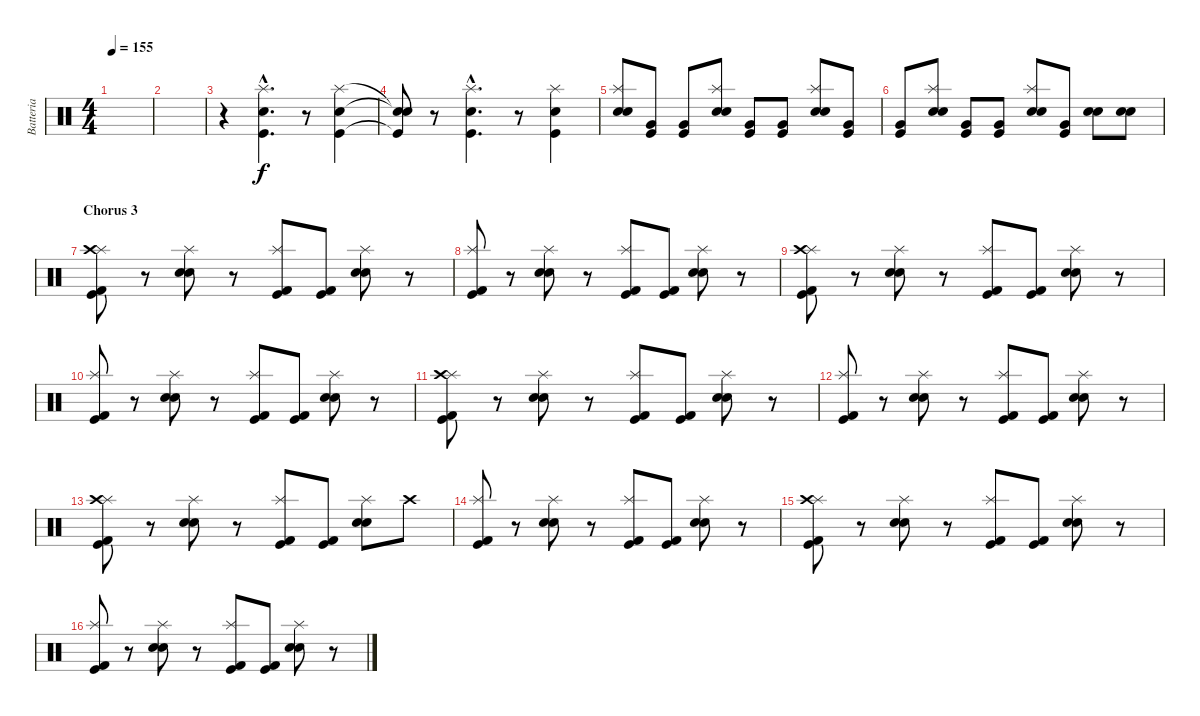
\track ("Batteria" "Batteria") {instrument percussion}
\staff {score}
\articulation defaults
\ts (4 4)
\tempo 155
\clef neutral
\ks c
|
|
r.4 ("Kick (hit)"{hac} "Snare (hit) 2"{hac} "Splash (hit)"{hac}).4{d} r.8 ("Kick (hit)" "Snare (hit) 2" "Splash (hit)").4 |
("Kick (hit)"{t} "Snare (hit) 2"{t} "Snare (hit)"{t}).8 r.8 ("Kick (hit)"{hac} "Snare (hit) 2"{hac} "Splash (hit)"{hac}).4{d} r.8 ("Kick (hit)" "Snare (hit) 2" "Splash (hit)").4 |
("Electric Snare (hit)" "Snare (hit) 2" "Splash (hit)").8 ("Kick (hit)" "Very Low Tom (hit)").8 ("Kick (hit)" "Very Low Tom (hit)").8 ("Electric Snare (hit)" "Snare (hit) 2" "Splash (hit)").8 ("Kick (hit)" "Very Low Tom (hit)").8 ("Kick (hit)" "Very Low Tom (hit)").8 ("Electric Snare (hit)" "Snare (hit) 2" "Splash (hit)").8 ("Kick (hit)" "Very Low Tom (hit)").8 |
("Kick (hit)" "Very Low Tom (hit)").8 ("Electric Snare (hit)" "Snare (hit) 2" "Splash (hit)").8 ("Kick (hit)" "Very Low Tom (hit)").8 ("Kick (hit)" "Very Low Tom (hit)").8 ("Electric Snare (hit)" "Snare (hit) 2" "Splash (hit)").8 ("Kick (hit)" "Very Low Tom (hit)").8 ("Electric Snare (hit)" "Snare (hit) 2").8 ("Electric Snare (hit)" "Snare (hit) 2").8 |
\section ("" "Chorus 3")
("Kick (hit)" "Kick (hit) 2" "Splash (hit)" "Crash high (hit)").8 r.8 ("Electric Snare (hit)" "Snare (hit) 2" "Splash (hit)").8 r.8 ("Kick (hit)" "Kick (hit) 2" "Splash (hit)").8 ("Kick (hit)" "Kick (hit) 2").8 ("Electric Snare (hit)" "Snare (hit) 2" "Splash (hit)").8 r.8 |
("Kick (hit)" "Kick (hit) 2" "Splash (hit)").8 r.8 ("Electric Snare (hit)" "Snare (hit) 2" "Splash (hit)").8 r.8 ("Kick (hit)" "Kick (hit) 2" "Splash (hit)").8 ("Kick (hit)" "Kick (hit) 2").8 ("Electric Snare (hit)" "Snare (hit) 2" "Splash (hit)").8 r.8 |
("Kick (hit)" "Kick (hit) 2" "Splash (hit)" "Crash high (hit)").8 r.8 ("Electric Snare (hit)" "Snare (hit) 2" "Splash (hit)").8 r.8 ("Kick (hit)" "Kick (hit) 2" "Splash (hit)").8 ("Kick (hit)" "Kick (hit) 2").8 ("Electric Snare (hit)" "Snare (hit) 2" "Splash (hit)").8 r.8 |
("Kick (hit)" "Kick (hit) 2" "Splash (hit)").8 r.8 ("Electric Snare (hit)" "Snare (hit) 2" "Splash (hit)").8 r.8 ("Kick (hit)" "Kick (hit) 2" "Splash (hit)").8 ("Kick (hit)" "Kick (hit) 2").8 ("Electric Snare (hit)" "Snare (hit) 2" "Splash (hit)").8 r.8 |
("Kick (hit)" "Kick (hit) 2" "Splash (hit)" "Crash high (hit)").8 r.8 ("Electric Snare (hit)" "Snare (hit) 2" "Splash (hit)").8 r.8 ("Kick (hit)" "Kick (hit) 2" "Splash (hit)").8 ("Kick (hit)" "Kick (hit) 2").8 ("Electric Snare (hit)" "Snare (hit) 2" "Splash (hit)").8 r.8 |
("Kick (hit)" "Kick (hit) 2" "Splash (hit)").8 r.8 ("Electric Snare (hit)" "Snare (hit) 2" "Splash (hit)").8 r.8 ("Kick (hit)" "Kick (hit) 2" "Splash (hit)").8 ("Kick (hit)" "Kick (hit) 2").8 ("Electric Snare (hit)" "Snare (hit) 2" "Splash (hit)").8 r.8 |
("Kick (hit)" "Kick (hit) 2" "Splash (hit)" "Crash high (hit)").8 r.8 ("Electric Snare (hit)" "Snare (hit) 2" "Splash (hit)").8 r.8 ("Kick (hit)" "Kick (hit) 2" "Splash (hit)").8 ("Kick (hit)" "Kick (hit) 2").8 ("Electric Snare (hit)" "Snare (hit) 2" "Splash (hit)").8 "Crash high (hit)".8 |
("Kick (hit)" "Kick (hit) 2" "Splash (hit)").8 r.8 ("Electric Snare (hit)" "Snare (hit) 2" "Splash (hit)").8 r.8 ("Kick (hit)" "Kick (hit) 2" "Splash (hit)").8 ("Kick (hit)" "Kick (hit) 2").8 ("Electric Snare (hit)" "Snare (hit) 2" "Splash (hit)").8 r.8 |
("Kick (hit)" "Kick (hit) 2" "Splash (hit)" "Crash high (hit)").8 r.8 ("Electric Snare (hit)" "Snare (hit) 2" "Splash (hit)").8 r.8 ("Kick (hit)" "Kick (hit) 2" "Splash (hit)").8 ("Kick (hit)" "Kick (hit) 2").8 ("Electric Snare (hit)" "Snare (hit) 2" "Splash (hit)").8 r.8 |
("Kick (hit)" "Kick (hit) 2" "Splash (hit)").8 r.8 ("Electric Snare (hit)" "Snare (hit) 2" "Splash (hit)").8 r.8 ("Kick (hit)" "Kick (hit) 2" "Splash (hit)").8 ("Kick (hit)" "Kick (hit) 2").8 ("Electric Snare (hit)" "Snare (hit) 2" "Splash (hit)").8 r.8
